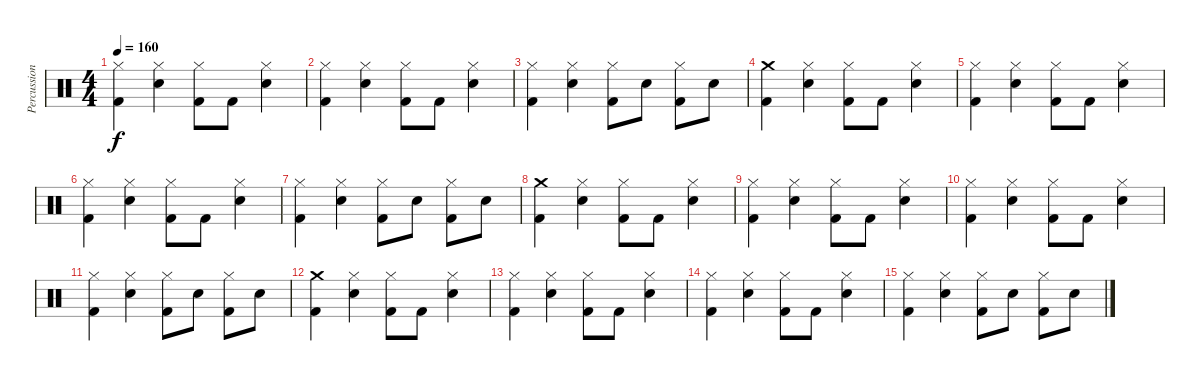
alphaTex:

\track ("Percussion" "Percussion") {instrument percussion}
\staff {score}
\articulation defaults
\ts (4 4)
\tempo 160
\clef neutral
\ks c
("Hi-Hat (closed)" "Kick (hit) 2").4{dy f} ("Hi-Hat (closed)" "Electric Snare (hit)").4 ("Hi-Hat (closed)" "Kick (hit) 2").8 "Kick (hit) 2".8 ("Hi-Hat (closed)" "Electric Snare (hit)").4 |
("Hi-Hat (closed)" "Kick (hit) 2").4 ("Hi-Hat (closed)" "Electric Snare (hit)").4 ("Hi-Hat (closed)" "Kick (hit) 2").8 "Kick (hit) 2".8 ("Hi-Hat (closed)" "Electric Snare (hit)").4 |
("Hi-Hat (closed)" "Kick (hit) 2").4 ("Hi-Hat (closed)" "Electric Snare (hit)").4 ("Hi-Hat (closed)" "Kick (hit) 2").8 "Electric Snare (hit)".8 ("Hi-Hat (closed)" "Kick (hit) 2").8 "Electric Snare (hit)".8 |
("Crash medium (hit)" "Kick (hit) 2").4 ("Hi-Hat (closed)" "Electric Snare (hit)").4 ("Hi-Hat (closed)" "Kick (hit) 2").8 "Kick (hit) 2".8 ("Hi-Hat (closed)" "Electric Snare (hit)").4 |
("Hi-Hat (closed)" "Kick (hit) 2").4 ("Hi-Hat (closed)" "Electric Snare (hit)").4 ("Hi-Hat (closed)" "Kick (hit) 2").8 "Kick (hit) 2".8 ("Hi-Hat (closed)" "Electric Snare (hit)").4 |
("Hi-Hat (closed)" "Kick (hit) 2").4 ("Hi-Hat (closed)" "Electric Snare (hit)").4 ("Hi-Hat (closed)" "Kick (hit) 2").8 "Kick (hit) 2".8 ("Hi-Hat (closed)" "Electric Snare (hit)").4 |
("Hi-Hat (closed)" "Kick (hit) 2").4 ("Hi-Hat (closed)" "Electric Snare (hit)").4 ("Hi-Hat (closed)" "Kick (hit) 2").8 "Electric Snare (hit)".8 ("Hi-Hat (closed)" "Kick (hit) 2").8 "Electric Snare (hit)".8 |
("Crash medium (hit)" "Kick (hit) 2").4 ("Hi-Hat (closed)" "Electric Snare (hit)").4 ("Hi-Hat (closed)" "Kick (hit) 2").8 "Kick (hit) 2".8 ("Hi-Hat (closed)" "Electric Snare (hit)").4 |
("Hi-Hat (closed)" "Kick (hit) 2").4 ("Hi-Hat (closed)" "Electric Snare (hit)").4 ("Hi-Hat (closed)" "Kick (hit) 2").8 "Kick (hit) 2".8 ("Hi-Hat (closed)" "Electric Snare (hit)").4 |
("Hi-Hat (closed)" "Kick (hit) 2").4 ("Hi-Hat (closed)" "Electric Snare (hit)").4 ("Hi-Hat (closed)" "Kick (hit) 2").8 "Kick (hit) 2".8 ("Hi-Hat (closed)" "Electric Snare (hit)").4 |
("Hi-Hat (closed)" "Kick (hit) 2").4 ("Hi-Hat (closed)" "Electric Snare (hit)").4 ("Hi-Hat (closed)" "Kick (hit) 2").8 "Electric Snare (hit)".8 ("Hi-Hat (closed)" "Kick (hit) 2").8 "Electric Snare (hit)".8 |
("Crash medium (hit)" "Kick (hit) 2").4 ("Hi-Hat (closed)" "Electric Snare (hit)").4 ("Hi-Hat (closed)" "Kick (hit) 2").8 "Kick (hit) 2".8 ("Hi-Hat (closed)" "Electric Snare (hit)").4 |
("Hi-Hat (closed)" "Kick (hit) 2").4 ("Hi-Hat (closed)" "Electric Snare (hit)").4 ("Hi-Hat (closed)" "Kick (hit) 2").8 "Kick (hit) 2".8 ("Hi-Hat (closed)" "Electric Snare (hit)").4 |
("Hi-Hat (closed)" "Kick (hit) 2").4 ("Hi-Hat (closed)" "Electric Snare (hit)").4 ("Hi-Hat (closed)" "Kick (hit) 2").8 "Kick (hit) 2".8 ("Hi-Hat (closed)" "Electric Snare (hit)").4 |
("Hi-Hat (closed)" "Kick (hit) 2").4 ("Hi-Hat (closed)" "Electric Snare (hit)").4 ("Hi-Hat (closed)" "Kick (hit) 2").8 "Electric Snare (hit)".8 ("Hi-Hat (closed)" "Kick (hit) 2").8 "Electric Snare (hit)".8
